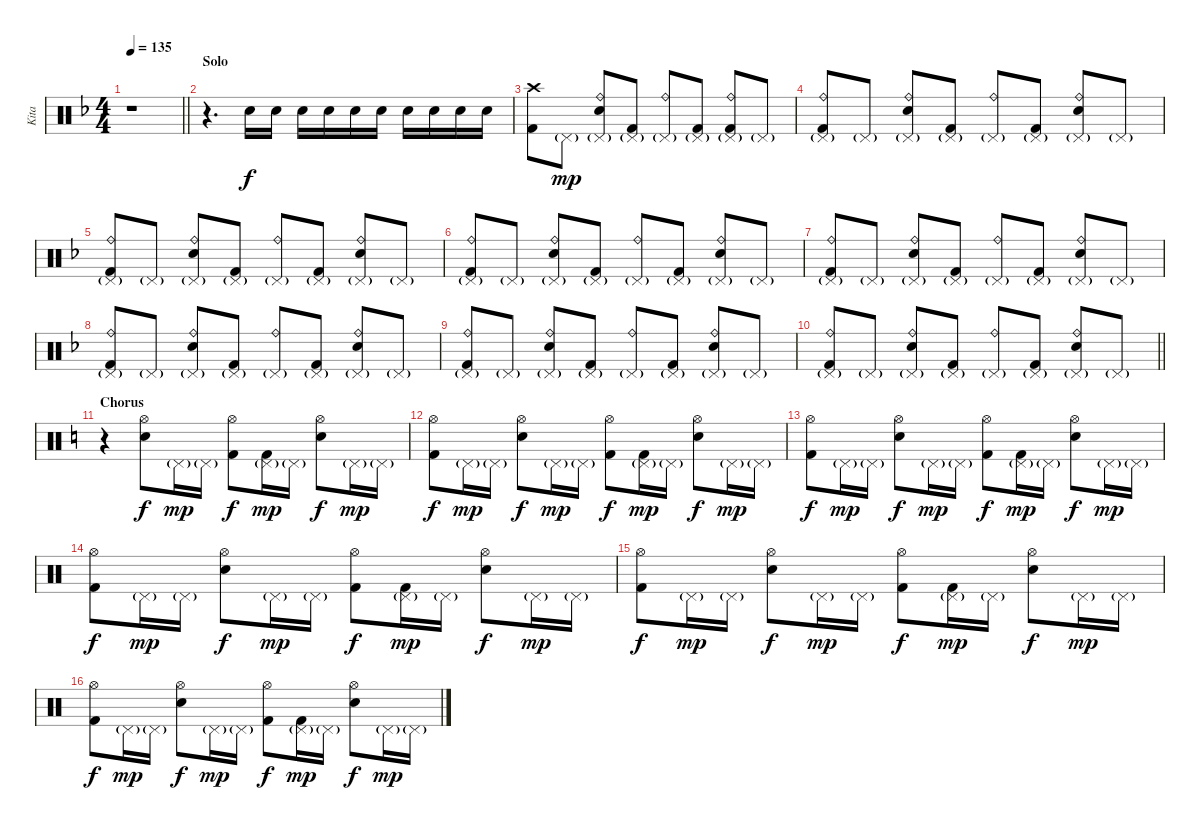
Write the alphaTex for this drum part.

\track ("Kita" "Kita") {instrument percussion}
\staff {score}
\articulation defaults
\ts (4 4)
\tempo 135
\clef neutral
\barLineRight lightlight
\ks f
r.1{dy f} |
\section ("" "Solo")
r.4{d} "Snare (hit) 2".16 "Snare (hit) 2".16 "Snare (hit) 2".16 "Snare (hit) 2".16 "Snare (hit) 2".16 "Snare (hit) 2".16 "Snare (hit) 2".16 "Snare (hit) 2".16 "Snare (hit) 2".16 "Snare (hit) 2".16 |
("Crash high (hit)" "Kick (hit) 2").8 "Pedal Hi-Hat (hit)"{g}.8{dy mp} ("Pedal Hi-Hat (hit)"{g} "Ride (bell)" "Snare (hit) 2").8 ("Pedal Hi-Hat (hit)"{g} "Kick (hit) 2").8 ("Pedal Hi-Hat (hit)"{g} "Ride (bell)").8 ("Pedal Hi-Hat (hit)"{g} "Kick (hit) 2").8 ("Pedal Hi-Hat (hit)"{g} "Ride (bell)" "Kick (hit) 2").8 "Pedal Hi-Hat (hit)"{g}.8 |
("Pedal Hi-Hat (hit)"{g} "Ride (bell)" "Kick (hit) 2").8 "Pedal Hi-Hat (hit)"{g}.8 ("Pedal Hi-Hat (hit)"{g} "Ride (bell)" "Snare (hit) 2").8 ("Pedal Hi-Hat (hit)"{g} "Kick (hit) 2").8 ("Pedal Hi-Hat (hit)"{g} "Ride (bell)").8 ("Pedal Hi-Hat (hit)"{g} "Kick (hit) 2").8 ("Pedal Hi-Hat (hit)"{g} "Ride (bell)" "Snare (hit) 2").8 "Pedal Hi-Hat (hit)"{g}.8 |
("Pedal Hi-Hat (hit)"{g} "Ride (bell)" "Kick (hit) 2").8 "Pedal Hi-Hat (hit)"{g}.8 ("Pedal Hi-Hat (hit)"{g} "Ride (bell)" "Snare (hit) 2").8 ("Pedal Hi-Hat (hit)"{g} "Kick (hit) 2").8 ("Pedal Hi-Hat (hit)"{g} "Ride (bell)").8 ("Pedal Hi-Hat (hit)"{g} "Kick (hit) 2").8 ("Pedal Hi-Hat (hit)"{g} "Ride (bell)" "Snare (hit) 2").8 "Pedal Hi-Hat (hit)"{g}.8 |
("Pedal Hi-Hat (hit)"{g} "Ride (bell)" "Kick (hit) 2").8 "Pedal Hi-Hat (hit)"{g}.8 ("Pedal Hi-Hat (hit)"{g} "Ride (bell)" "Snare (hit) 2").8 ("Pedal Hi-Hat (hit)"{g} "Kick (hit) 2").8 ("Pedal Hi-Hat (hit)"{g} "Ride (bell)").8 ("Pedal Hi-Hat (hit)"{g} "Kick (hit) 2").8 ("Pedal Hi-Hat (hit)"{g} "Ride (bell)" "Snare (hit) 2").8 "Pedal Hi-Hat (hit)"{g}.8 |
("Pedal Hi-Hat (hit)"{g} "Ride (bell)" "Kick (hit) 2").8 "Pedal Hi-Hat (hit)"{g}.8 ("Pedal Hi-Hat (hit)"{g} "Ride (bell)" "Snare (hit) 2").8 ("Pedal Hi-Hat (hit)"{g} "Kick (hit) 2").8 ("Pedal Hi-Hat (hit)"{g} "Ride (bell)").8 ("Pedal Hi-Hat (hit)"{g} "Kick (hit) 2").8 ("Pedal Hi-Hat (hit)"{g} "Ride (bell)" "Snare (hit) 2").8 "Pedal Hi-Hat (hit)"{g}.8 |
("Pedal Hi-Hat (hit)"{g} "Ride (bell)" "Kick (hit) 2").8 "Pedal Hi-Hat (hit)"{g}.8 ("Pedal Hi-Hat (hit)"{g} "Ride (bell)" "Snare (hit) 2").8 ("Pedal Hi-Hat (hit)"{g} "Kick (hit) 2").8 ("Pedal Hi-Hat (hit)"{g} "Ride (bell)").8 ("Pedal Hi-Hat (hit)"{g} "Kick (hit) 2").8 ("Pedal Hi-Hat (hit)"{g} "Ride (bell)" "Snare (hit) 2").8 "Pedal Hi-Hat (hit)"{g}.8 |
("Pedal Hi-Hat (hit)"{g} "Ride (bell)" "Kick (hit) 2").8 "Pedal Hi-Hat (hit)"{g}.8 ("Pedal Hi-Hat (hit)"{g} "Ride (bell)" "Snare (hit) 2").8 ("Pedal Hi-Hat (hit)"{g} "Kick (hit) 2").8 ("Pedal Hi-Hat (hit)"{g} "Ride (bell)").8 ("Pedal Hi-Hat (hit)"{g} "Kick (hit) 2").8 ("Pedal Hi-Hat (hit)"{g} "Ride (bell)" "Snare (hit) 2").8 "Pedal Hi-Hat (hit)"{g}.8 |
\barLineRight lightlight
("Pedal Hi-Hat (hit)"{g} "Ride (bell)" "Kick (hit) 2").8 "Pedal Hi-Hat (hit)"{g}.8 ("Pedal Hi-Hat (hit)"{g} "Ride (bell)" "Snare (hit) 2").8 ("Pedal Hi-Hat (hit)"{g} "Kick (hit) 2").8 ("Pedal Hi-Hat (hit)"{g} "Ride (bell)").8 ("Pedal Hi-Hat (hit)"{g} "Kick (hit) 2").8 ("Pedal Hi-Hat (hit)"{g} "Ride (bell)" "Snare (hit) 2").8 "Pedal Hi-Hat (hit)"{g}.8 |
\section ("" "Chorus")
\ks c
r.4 ("Hi-Hat (open)" "Snare (hit) 2").8{dy f} "Pedal Hi-Hat (hit)"{g}.16{dy mp} "Pedal Hi-Hat (hit)"{g}.16 ("Hi-Hat (open)" "Kick (hit) 2").8{dy f} ("Pedal Hi-Hat (hit)"{g} "Kick (hit) 2").16{dy mp} "Pedal Hi-Hat (hit)"{g}.16 ("Hi-Hat (open)" "Snare (hit) 2").8{dy f} "Pedal Hi-Hat (hit)"{g}.16{dy mp} "Pedal Hi-Hat (hit)"{g}.16 |
("Hi-Hat (open)" "Kick (hit) 2").8{dy f} "Pedal Hi-Hat (hit)"{g}.16{dy mp} "Pedal Hi-Hat (hit)"{g}.16 ("Hi-Hat (open)" "Snare (hit) 2").8{dy f} "Pedal Hi-Hat (hit)"{g}.16{dy mp} "Pedal Hi-Hat (hit)"{g}.16 ("Hi-Hat (open)" "Kick (hit) 2").8{dy f} ("Pedal Hi-Hat (hit)"{g} "Kick (hit) 2").16{dy mp} "Pedal Hi-Hat (hit)"{g}.16 ("Hi-Hat (open)" "Snare (hit) 2").8{dy f} "Pedal Hi-Hat (hit)"{g}.16{dy mp} "Pedal Hi-Hat (hit)"{g}.16 |
("Hi-Hat (open)" "Kick (hit) 2").8{dy f} "Pedal Hi-Hat (hit)"{g}.16{dy mp} "Pedal Hi-Hat (hit)"{g}.16 ("Hi-Hat (open)" "Snare (hit) 2").8{dy f} "Pedal Hi-Hat (hit)"{g}.16{dy mp} "Pedal Hi-Hat (hit)"{g}.16 ("Hi-Hat (open)" "Kick (hit) 2").8{dy f} ("Pedal Hi-Hat (hit)"{g} "Kick (hit) 2").16{dy mp} "Pedal Hi-Hat (hit)"{g}.16 ("Hi-Hat (open)" "Snare (hit) 2").8{dy f} "Pedal Hi-Hat (hit)"{g}.16{dy mp} "Pedal Hi-Hat (hit)"{g}.16 |
("Hi-Hat (open)" "Kick (hit) 2").8{dy f} "Pedal Hi-Hat (hit)"{g}.16{dy mp} "Pedal Hi-Hat (hit)"{g}.16 ("Hi-Hat (open)" "Snare (hit) 2").8{dy f} "Pedal Hi-Hat (hit)"{g}.16{dy mp} "Pedal Hi-Hat (hit)"{g}.16 ("Hi-Hat (open)" "Kick (hit) 2").8{dy f} ("Pedal Hi-Hat (hit)"{g} "Kick (hit) 2").16{dy mp} "Pedal Hi-Hat (hit)"{g}.16 ("Hi-Hat (open)" "Snare (hit) 2").8{dy f} "Pedal Hi-Hat (hit)"{g}.16{dy mp} "Pedal Hi-Hat (hit)"{g}.16 |
("Hi-Hat (open)" "Kick (hit) 2").8{dy f} "Pedal Hi-Hat (hit)"{g}.16{dy mp} "Pedal Hi-Hat (hit)"{g}.16 ("Hi-Hat (open)" "Snare (hit) 2").8{dy f} "Pedal Hi-Hat (hit)"{g}.16{dy mp} "Pedal Hi-Hat (hit)"{g}.16 ("Hi-Hat (open)" "Kick (hit) 2").8{dy f} ("Pedal Hi-Hat (hit)"{g} "Kick (hit) 2").16{dy mp} "Pedal Hi-Hat (hit)"{g}.16 ("Hi-Hat (open)" "Snare (hit) 2").8{dy f} "Pedal Hi-Hat (hit)"{g}.16{dy mp} "Pedal Hi-Hat (hit)"{g}.16 |
("Hi-Hat (open)" "Kick (hit) 2").8{dy f} "Pedal Hi-Hat (hit)"{g}.16{dy mp} "Pedal Hi-Hat (hit)"{g}.16 ("Hi-Hat (open)" "Snare (hit) 2").8{dy f} "Pedal Hi-Hat (hit)"{g}.16{dy mp} "Pedal Hi-Hat (hit)"{g}.16 ("Hi-Hat (open)" "Kick (hit) 2").8{dy f} ("Pedal Hi-Hat (hit)"{g} "Kick (hit) 2").16{dy mp} "Pedal Hi-Hat (hit)"{g}.16 ("Hi-Hat (open)" "Snare (hit) 2").8{dy f} "Pedal Hi-Hat (hit)"{g}.16{dy mp} "Pedal Hi-Hat (hit)"{g}.16
